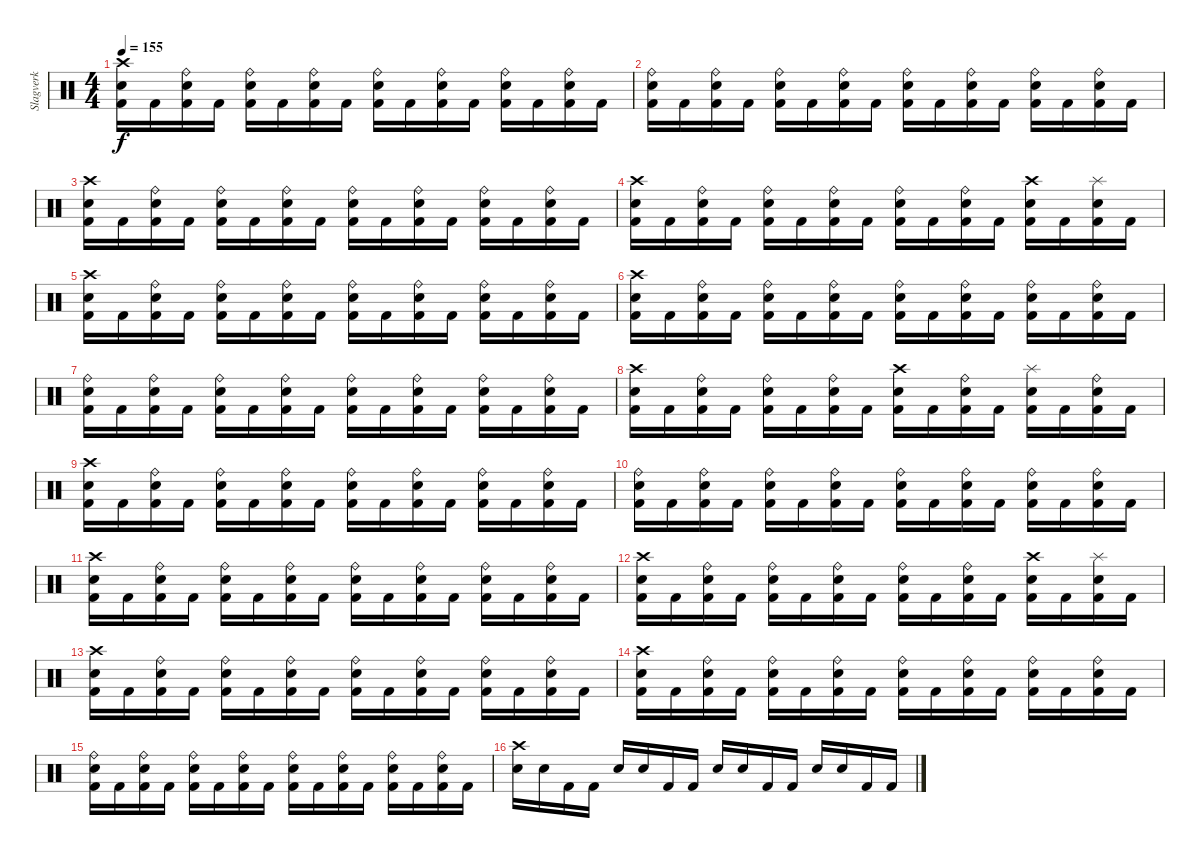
\track ("Slagverk" "Slagverk") {instrument percussion}
\staff {score}
\articulation defaults
\ts (4 4)
\tempo 155
\clef neutral
\ks c
("Crash high (hit)" "Snare (hit) 2" "Kick (hit) 2").16{dy f} "Kick (hit) 2".16 ("Ride (bell)" "Snare (hit) 2" "Kick (hit) 2").16 "Kick (hit) 2".16 ("Ride (bell)" "Snare (hit) 2" "Kick (hit) 2").16 "Kick (hit) 2".16 ("Ride (bell)" "Snare (hit) 2" "Kick (hit) 2").16 "Kick (hit) 2".16 ("Ride (bell)" "Snare (hit) 2" "Kick (hit) 2").16 "Kick (hit) 2".16 ("Ride (bell)" "Snare (hit) 2" "Kick (hit) 2").16 "Kick (hit) 2".16 ("Ride (bell)" "Snare (hit) 2" "Kick (hit) 2").16 "Kick (hit) 2".16 ("Ride (bell)" "Snare (hit) 2" "Kick (hit) 2").16 "Kick (hit) 2".16 |
("Ride (bell)" "Snare (hit) 2" "Kick (hit) 2").16 "Kick (hit) 2".16 ("Ride (bell)" "Snare (hit) 2" "Kick (hit) 2").16 "Kick (hit) 2".16 ("Ride (bell)" "Snare (hit) 2" "Kick (hit) 2").16 "Kick (hit) 2".16 ("Ride (bell)" "Snare (hit) 2" "Kick (hit) 2").16 "Kick (hit) 2".16 ("Ride (bell)" "Snare (hit) 2" "Kick (hit) 2").16 "Kick (hit) 2".16 ("Ride (bell)" "Snare (hit) 2" "Kick (hit) 2").16 "Kick (hit) 2".16 ("Ride (bell)" "Snare (hit) 2" "Kick (hit) 2").16 "Kick (hit) 2".16 ("Ride (bell)" "Snare (hit) 2" "Kick (hit) 2").16 "Kick (hit) 2".16 |
("Crash high (hit)" "Snare (hit) 2" "Kick (hit) 2").16 "Kick (hit) 2".16 ("Ride (bell)" "Snare (hit) 2" "Kick (hit) 2").16 "Kick (hit) 2".16 ("Ride (bell)" "Snare (hit) 2" "Kick (hit) 2").16 "Kick (hit) 2".16 ("Ride (bell)" "Snare (hit) 2" "Kick (hit) 2").16 "Kick (hit) 2".16 ("Ride (bell)" "Snare (hit) 2" "Kick (hit) 2").16 "Kick (hit) 2".16 ("Ride (bell)" "Snare (hit) 2" "Kick (hit) 2").16 "Kick (hit) 2".16 ("Ride (bell)" "Snare (hit) 2" "Kick (hit) 2").16 "Kick (hit) 2".16 ("Ride (bell)" "Snare (hit) 2" "Kick (hit) 2").16 "Kick (hit) 2".16 |
("Crash high (hit)" "Snare (hit) 2" "Kick (hit) 2").16 "Kick (hit) 2".16 ("Ride (bell)" "Snare (hit) 2" "Kick (hit) 2").16 "Kick (hit) 2".16 ("Ride (bell)" "Snare (hit) 2" "Kick (hit) 2").16 "Kick (hit) 2".16 ("Ride (bell)" "Snare (hit) 2" "Kick (hit) 2").16 "Kick (hit) 2".16 ("Ride (bell)" "Snare (hit) 2" "Kick (hit) 2").16 "Kick (hit) 2".16 ("Ride (bell)" "Snare (hit) 2" "Kick (hit) 2").16 "Kick (hit) 2".16 ("Crash high (hit)" "Snare (hit) 2" "Kick (hit) 2").16 "Kick (hit) 2".16 ("Splash (hit)" "Snare (hit) 2" "Kick (hit) 2").16 "Kick (hit) 2".16 |
("Crash high (hit)" "Snare (hit) 2" "Kick (hit) 2").16 "Kick (hit) 2".16 ("Ride (bell)" "Snare (hit) 2" "Kick (hit) 2").16 "Kick (hit) 2".16 ("Ride (bell)" "Snare (hit) 2" "Kick (hit) 2").16 "Kick (hit) 2".16 ("Ride (bell)" "Snare (hit) 2" "Kick (hit) 2").16 "Kick (hit) 2".16 ("Ride (bell)" "Snare (hit) 2" "Kick (hit) 2").16 "Kick (hit) 2".16 ("Ride (bell)" "Snare (hit) 2" "Kick (hit) 2").16 "Kick (hit) 2".16 ("Ride (bell)" "Snare (hit) 2" "Kick (hit) 2").16 "Kick (hit) 2".16 ("Ride (bell)" "Snare (hit) 2" "Kick (hit) 2").16 "Kick (hit) 2".16 |
("Crash high (hit)" "Snare (hit) 2" "Kick (hit) 2").16 "Kick (hit) 2".16 ("Ride (bell)" "Snare (hit) 2" "Kick (hit) 2").16 "Kick (hit) 2".16 ("Ride (bell)" "Snare (hit) 2" "Kick (hit) 2").16 "Kick (hit) 2".16 ("Ride (bell)" "Snare (hit) 2" "Kick (hit) 2").16 "Kick (hit) 2".16 ("Ride (bell)" "Snare (hit) 2" "Kick (hit) 2").16 "Kick (hit) 2".16 ("Ride (bell)" "Snare (hit) 2" "Kick (hit) 2").16 "Kick (hit) 2".16 ("Ride (bell)" "Snare (hit) 2" "Kick (hit) 2").16 "Kick (hit) 2".16 ("Ride (bell)" "Snare (hit) 2" "Kick (hit) 2").16 "Kick (hit) 2".16 |
("Ride (bell)" "Snare (hit) 2" "Kick (hit) 2").16 "Kick (hit) 2".16 ("Ride (bell)" "Snare (hit) 2" "Kick (hit) 2").16 "Kick (hit) 2".16 ("Ride (bell)" "Snare (hit) 2" "Kick (hit) 2").16 "Kick (hit) 2".16 ("Ride (bell)" "Snare (hit) 2" "Kick (hit) 2").16 "Kick (hit) 2".16 ("Ride (bell)" "Snare (hit) 2" "Kick (hit) 2").16 "Kick (hit) 2".16 ("Ride (bell)" "Snare (hit) 2" "Kick (hit) 2").16 "Kick (hit) 2".16 ("Ride (bell)" "Snare (hit) 2" "Kick (hit) 2").16 "Kick (hit) 2".16 ("Ride (bell)" "Snare (hit) 2" "Kick (hit) 2").16 "Kick (hit) 2".16 |
("Crash high (hit)" "Snare (hit) 2" "Kick (hit) 2").16 "Kick (hit) 2".16 ("Ride (bell)" "Snare (hit) 2" "Kick (hit) 2").16 "Kick (hit) 2".16 ("Ride (bell)" "Snare (hit) 2" "Kick (hit) 2").16 "Kick (hit) 2".16 ("Ride (bell)" "Snare (hit) 2" "Kick (hit) 2").16 "Kick (hit) 2".16 ("Crash high (hit)" "Snare (hit) 2" "Kick (hit) 2").16 "Kick (hit) 2".16 ("Ride (bell)" "Snare (hit) 2" "Kick (hit) 2").16 "Kick (hit) 2".16 ("Splash (hit)" "Snare (hit) 2" "Kick (hit) 2").16 "Kick (hit) 2".16 ("Ride (bell)" "Snare (hit) 2" "Kick (hit) 2").16 "Kick (hit) 2".16 |
("Crash high (hit)" "Snare (hit) 2" "Kick (hit) 2").16 "Kick (hit) 2".16 ("Ride (bell)" "Snare (hit) 2" "Kick (hit) 2").16 "Kick (hit) 2".16 ("Ride (bell)" "Snare (hit) 2" "Kick (hit) 2").16 "Kick (hit) 2".16 ("Ride (bell)" "Snare (hit) 2" "Kick (hit) 2").16 "Kick (hit) 2".16 ("Ride (bell)" "Snare (hit) 2" "Kick (hit) 2").16 "Kick (hit) 2".16 ("Ride (bell)" "Snare (hit) 2" "Kick (hit) 2").16 "Kick (hit) 2".16 ("Ride (bell)" "Snare (hit) 2" "Kick (hit) 2").16 "Kick (hit) 2".16 ("Ride (bell)" "Snare (hit) 2" "Kick (hit) 2").16 "Kick (hit) 2".16 |
("Ride (bell)" "Snare (hit) 2" "Kick (hit) 2").16 "Kick (hit) 2".16 ("Ride (bell)" "Snare (hit) 2" "Kick (hit) 2").16 "Kick (hit) 2".16 ("Ride (bell)" "Snare (hit) 2" "Kick (hit) 2").16 "Kick (hit) 2".16 ("Ride (bell)" "Snare (hit) 2" "Kick (hit) 2").16 "Kick (hit) 2".16 ("Ride (bell)" "Snare (hit) 2" "Kick (hit) 2").16 "Kick (hit) 2".16 ("Ride (bell)" "Snare (hit) 2" "Kick (hit) 2").16 "Kick (hit) 2".16 ("Ride (bell)" "Snare (hit) 2" "Kick (hit) 2").16 "Kick (hit) 2".16 ("Ride (bell)" "Snare (hit) 2" "Kick (hit) 2").16 "Kick (hit) 2".16 |
("Crash high (hit)" "Snare (hit) 2" "Kick (hit) 2").16 "Kick (hit) 2".16 ("Ride (bell)" "Snare (hit) 2" "Kick (hit) 2").16 "Kick (hit) 2".16 ("Ride (bell)" "Snare (hit) 2" "Kick (hit) 2").16 "Kick (hit) 2".16 ("Ride (bell)" "Snare (hit) 2" "Kick (hit) 2").16 "Kick (hit) 2".16 ("Ride (bell)" "Snare (hit) 2" "Kick (hit) 2").16 "Kick (hit) 2".16 ("Ride (bell)" "Snare (hit) 2" "Kick (hit) 2").16 "Kick (hit) 2".16 ("Ride (bell)" "Snare (hit) 2" "Kick (hit) 2").16 "Kick (hit) 2".16 ("Ride (bell)" "Snare (hit) 2" "Kick (hit) 2").16 "Kick (hit) 2".16 |
("Crash high (hit)" "Snare (hit) 2" "Kick (hit) 2").16 "Kick (hit) 2".16 ("Ride (bell)" "Snare (hit) 2" "Kick (hit) 2").16 "Kick (hit) 2".16 ("Ride (bell)" "Snare (hit) 2" "Kick (hit) 2").16 "Kick (hit) 2".16 ("Ride (bell)" "Snare (hit) 2" "Kick (hit) 2").16 "Kick (hit) 2".16 ("Ride (bell)" "Snare (hit) 2" "Kick (hit) 2").16 "Kick (hit) 2".16 ("Ride (bell)" "Snare (hit) 2" "Kick (hit) 2").16 "Kick (hit) 2".16 ("Crash high (hit)" "Snare (hit) 2" "Kick (hit) 2").16 "Kick (hit) 2".16 ("Splash (hit)" "Snare (hit) 2" "Kick (hit) 2").16 "Kick (hit) 2".16 |
("Crash high (hit)" "Snare (hit) 2" "Kick (hit) 2").16 "Kick (hit) 2".16 ("Ride (bell)" "Snare (hit) 2" "Kick (hit) 2").16 "Kick (hit) 2".16 ("Ride (bell)" "Snare (hit) 2" "Kick (hit) 2").16 "Kick (hit) 2".16 ("Ride (bell)" "Snare (hit) 2" "Kick (hit) 2").16 "Kick (hit) 2".16 ("Ride (bell)" "Snare (hit) 2" "Kick (hit) 2").16 "Kick (hit) 2".16 ("Ride (bell)" "Snare (hit) 2" "Kick (hit) 2").16 "Kick (hit) 2".16 ("Ride (bell)" "Snare (hit) 2" "Kick (hit) 2").16 "Kick (hit) 2".16 ("Ride (bell)" "Snare (hit) 2" "Kick (hit) 2").16 "Kick (hit) 2".16 |
("Crash high (hit)" "Snare (hit) 2" "Kick (hit) 2").16 "Kick (hit) 2".16 ("Ride (bell)" "Snare (hit) 2" "Kick (hit) 2").16 "Kick (hit) 2".16 ("Ride (bell)" "Snare (hit) 2" "Kick (hit) 2").16 "Kick (hit) 2".16 ("Ride (bell)" "Snare (hit) 2" "Kick (hit) 2").16 "Kick (hit) 2".16 ("Ride (bell)" "Snare (hit) 2" "Kick (hit) 2").16 "Kick (hit) 2".16 ("Ride (bell)" "Snare (hit) 2" "Kick (hit) 2").16 "Kick (hit) 2".16 ("Ride (bell)" "Snare (hit) 2" "Kick (hit) 2").16 "Kick (hit) 2".16 ("Ride (bell)" "Snare (hit) 2" "Kick (hit) 2").16 "Kick (hit) 2".16 |
("Ride (bell)" "Snare (hit) 2" "Kick (hit) 2").16 "Kick (hit) 2".16 ("Ride (bell)" "Snare (hit) 2" "Kick (hit) 2").16 "Kick (hit) 2".16 ("Ride (bell)" "Snare (hit) 2" "Kick (hit) 2").16 "Kick (hit) 2".16 ("Ride (bell)" "Snare (hit) 2" "Kick (hit) 2").16 "Kick (hit) 2".16 ("Ride (bell)" "Snare (hit) 2" "Kick (hit) 2").16 "Kick (hit) 2".16 ("Ride (bell)" "Snare (hit) 2" "Kick (hit) 2").16 "Kick (hit) 2".16 ("Ride (bell)" "Snare (hit) 2" "Kick (hit) 2").16 "Kick (hit) 2".16 ("Ride (bell)" "Snare (hit) 2" "Kick (hit) 2").16 "Kick (hit) 2".16 |
("Crash high (hit)" "Electric Snare (hit)").16 "Electric Snare (hit)".16 "Kick (hit) 2".16 "Kick (hit) 2".16 "Electric Snare (hit)".16 "Electric Snare (hit)".16 "Kick (hit) 2".16 "Kick (hit) 2".16 "Snare (hit) 2".16 "Snare (hit) 2".16 "Kick (hit) 2".16 "Kick (hit) 2".16 "Snare (hit) 2".16 "Snare (hit) 2".16 "Kick (hit) 2".16 "Kick (hit) 2".16
